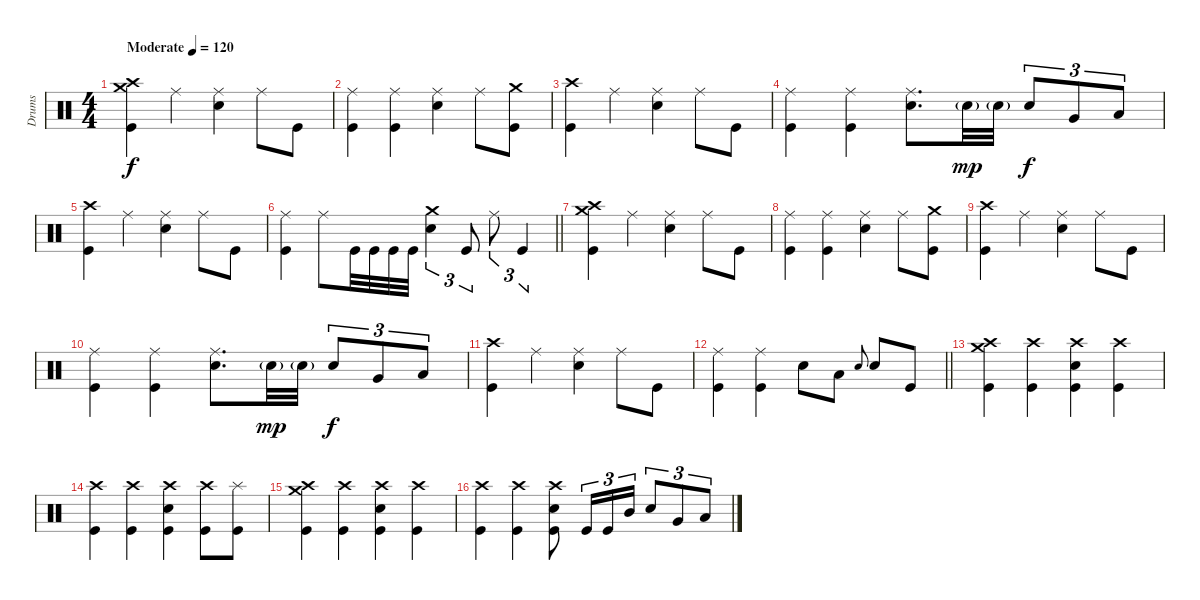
\track ("Drums" "Drums") {instrument percussion}
\staff
\articulation defaults
\ts (4 4)
\tempo (120 "Moderate")
\clef neutral
\ks c
("Crash medium (hit)" "Crash high (hit)" "Kick (hit)").4{dy f} "Ride (middle)".4 ("Ride (middle)" "Electric Snare (hit)").4 "Ride (middle)".8 "Kick (hit)".8 |
("Ride (middle)" "Kick (hit)").4 ("Ride (middle)" "Kick (hit)").4 ("Ride (middle)" "Electric Snare (hit)").4 "Ride (middle)".8 ("Crash medium (hit)" "Kick (hit)").8 |
("Crash high (hit)" "Kick (hit)").4 "Ride (middle)".4 ("Ride (middle)" "Electric Snare (hit)").4 "Ride (middle)".8 "Kick (hit)".8 |
("Ride (middle)" "Kick (hit)").4 ("Ride (middle)" "Kick (hit)").4 ("Ride (middle)" "Electric Snare (hit)").8{d} "Electric Snare (hit)"{g}.32{dy mp} "Electric Snare (hit)"{g}.32 "Electric Snare (hit)".8{tu (3 2) dy f} "Very Low Tom (hit)".8{tu (3 2)} "Low Floor Tom (hit)".8{tu (3 2)} |
("Crash high (hit)" "Kick (hit)").4 "Ride (middle)".4 ("Ride (middle)" "Electric Snare (hit)").4 "Ride (middle)".8 "Kick (hit)".8 |
\barLineRight lightlight
("Ride (middle)" "Kick (hit)").4 "Ride (middle)".8 "Kick (hit)".32 "Kick (hit)".32 "Kick (hit)".32 "Kick (hit)".32 ("Crash medium (hit)" "Electric Snare (hit)").4{tu (3 2)} "Kick (hit)".8{tu (3 2)} "Ride (middle)".8{tu (3 2)} "Kick (hit)".4{tu (3 2)} |
("Crash medium (hit)" "Crash high (hit)" "Kick (hit)").4 "Ride (middle)".4 ("Ride (middle)" "Electric Snare (hit)").4 "Ride (middle)".8 "Kick (hit)".8 |
("Ride (middle)" "Kick (hit)").4 ("Ride (middle)" "Kick (hit)").4 ("Ride (middle)" "Electric Snare (hit)").4 "Ride (middle)".8 ("Crash medium (hit)" "Kick (hit)").8 |
("Crash high (hit)" "Kick (hit)").4 "Ride (middle)".4 ("Ride (middle)" "Electric Snare (hit)").4 "Ride (middle)".8 "Kick (hit)".8 |
("Ride (middle)" "Kick (hit)").4 ("Ride (middle)" "Kick (hit)").4 ("Ride (middle)" "Electric Snare (hit)").8{d} "Electric Snare (hit)"{g}.32{dy mp} "Electric Snare (hit)"{g}.32 "Electric Snare (hit)".8{tu (3 2) dy f} "Very Low Tom (hit)".8{tu (3 2)} "Low Floor Tom (hit)".8{tu (3 2)} |
("Crash high (hit)" "Kick (hit)").4 "Ride (middle)".4 ("Ride (middle)" "Electric Snare (hit)").4 "Ride (middle)".8 "Kick (hit)".8 |
\barLineRight lightlight
("Ride (middle)" "Kick (hit)").4 ("Ride (middle)" "Kick (hit)").4 "Electric Snare (hit)".8 "Low Tom (hit)".8 "Electric Snare (hit)".8{gr onbeat} "Electric Snare (hit)".8 "Kick (hit)".8 |
("Crash medium (hit)" "Crash high (hit)" "Kick (hit)").4 ("Crash high (hit)" "Kick (hit)").4 ("Crash high (hit)" "Electric Snare (hit)" "Kick (hit)").4 ("Crash high (hit)" "Kick (hit)").4 |
("Crash high (hit)" "Kick (hit)").4 ("Crash high (hit)" "Kick (hit)").4 ("Crash high (hit)" "Electric Snare (hit)" "Kick (hit)").4 ("Crash high (hit)" "Kick (hit)").8 ("Splash (hit)" "Kick (hit)").8 |
("Crash medium (hit)" "Crash high (hit)" "Kick (hit)").4 ("Crash high (hit)" "Kick (hit)").4 ("Crash high (hit)" "Electric Snare (hit)" "Kick (hit)").4 ("Crash high (hit)" "Kick (hit)").4 |
("Crash high (hit)" "Kick (hit)").4 ("Crash high (hit)" "Kick (hit)").4 ("Crash high (hit)" "Electric Snare (hit)" "Kick (hit)").8 "Kick (hit)".16{tu (3 2)} "Kick (hit)".16{tu (3 2)} "Mid Tom (hit)".16{tu (3 2)} "Electric Snare (hit)".8{tu (3 2)} "Very Low Tom (hit)".8{tu (3 2)} "Low Floor Tom (hit)".8{tu (3 2)}
